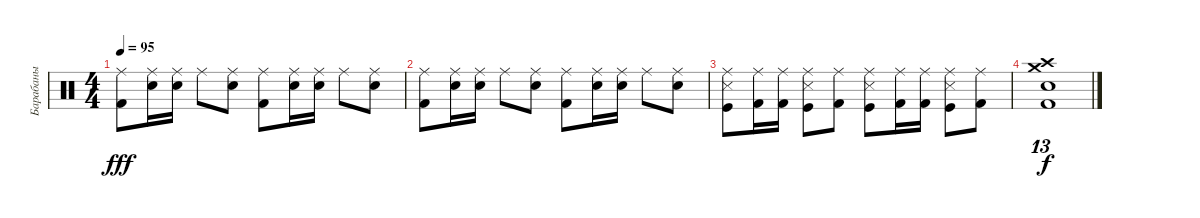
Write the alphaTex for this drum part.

\track ("Барабаны" "Барабаны") {instrument percussion}
\staff {score}
\articulation defaults
\ts (4 4)
\tempo 95
\clef neutral
\ks c
("Kick (hit) 2" "Ride (middle)").8{dy fff} ("Snare (hit) 2" "Ride (middle)").16 ("Snare (hit) 2" "Ride (middle)").16 "Ride (middle)".8 ("Snare (hit) 2" "Ride (middle)").8 ("Kick (hit) 2" "Ride (middle)").8 ("Snare (hit) 2" "Ride (middle)").16 ("Snare (hit) 2" "Ride (middle)").16 "Ride (middle)".8 ("Snare (hit) 2" "Ride (middle)").8 |
("Kick (hit) 2" "Ride (middle)").8 ("Snare (hit) 2" "Ride (middle)").16 ("Snare (hit) 2" "Ride (middle)").16 "Ride (middle)".8 ("Snare (hit) 2" "Ride (middle)").8 ("Kick (hit) 2" "Ride (middle)").8 ("Snare (hit) 2" "Ride (middle)").16 ("Snare (hit) 2" "Ride (middle)").16 "Ride (middle)".8 ("Snare (hit) 2" "Ride (middle)").8 |
("Kick (hit)" "Metronome (hit)" "Ride (middle)").8 ("Kick (hit) 2" "Ride (middle)").16 ("Kick (hit) 2" "Ride (middle)").16 ("Kick (hit)" "Metronome (hit)" "Ride (middle)").8 ("Kick (hit) 2" "Ride (middle)").8 ("Kick (hit)" "Metronome (hit)" "Ride (middle)").8 ("Kick (hit) 2" "Ride (middle)").16 ("Kick (hit) 2" "Ride (middle)").16 ("Kick (hit)" "Metronome (hit)" "Ride (middle)").8 ("Kick (hit) 2" "Ride (middle)").8 |
("Crash medium (hit)" "Crash high (hit)" "Kick (hit) 2" "Snare (hit) 2").1{tu (13 8) dy f}
